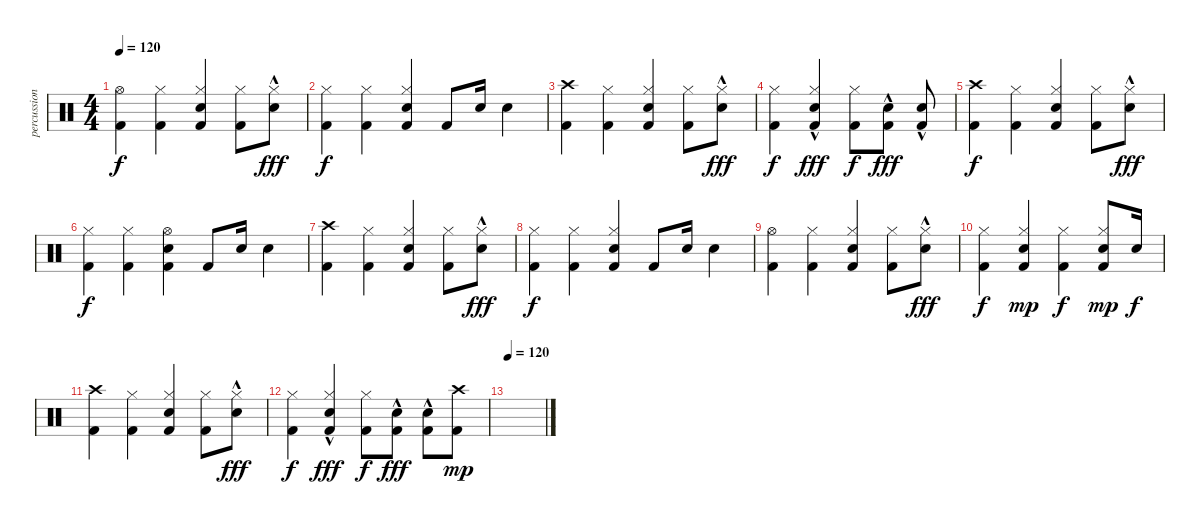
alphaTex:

\track ("percussion" "percussion") {instrument percussion}
\staff {score}
\articulation defaults
\ts (4 4)
\tempo 120
\clef neutral
\ks c
("Hi-Hat (open)" "Kick (hit) 2").4{dy f} ("Hi-Hat (closed)" "Kick (hit) 2").4 ("Hi-Hat (closed)" "Electric Snare (hit)" "Kick (hit) 2").4 ("Hi-Hat (closed)" "Kick (hit) 2").8 ("Hi-Hat (closed)" "Electric Snare (hit)"{hac}).8{dy fff} |
("Hi-Hat (closed)" "Kick (hit) 2").4{dy f} ("Hi-Hat (closed)" "Kick (hit) 2").4 ("Hi-Hat (closed)" "Electric Snare (hit)" "Kick (hit) 2").4 "Kick (hit) 2".8 "Electric Snare (hit)".16 "Electric Snare (hit)".4 |
("Crash high (hit)" "Kick (hit) 2").4 ("Hi-Hat (closed)" "Kick (hit) 2").4 ("Hi-Hat (closed)" "Electric Snare (hit)" "Kick (hit) 2").4 ("Hi-Hat (closed)" "Kick (hit) 2").8 ("Hi-Hat (closed)" "Electric Snare (hit)"{hac}).8{dy fff} |
("Hi-Hat (closed)" "Kick (hit) 2").4{dy f} ("Hi-Hat (closed)" "Electric Snare (hit)"{hac} "Kick (hit) 2").4{dy fff} ("Hi-Hat (closed)" "Kick (hit) 2").8{dy f} ("Electric Snare (hit)"{hac} "Kick (hit) 2").8{dy fff} ("Electric Snare (hit)"{hac} "Kick (hit) 2").8 |
("Crash high (hit)" "Kick (hit) 2").4{dy f} ("Hi-Hat (closed)" "Kick (hit) 2").4 ("Hi-Hat (closed)" "Electric Snare (hit)" "Kick (hit) 2").4 ("Hi-Hat (closed)" "Kick (hit) 2").8 ("Hi-Hat (closed)" "Electric Snare (hit)"{hac}).8{dy fff} |
("Hi-Hat (closed)" "Kick (hit) 2").4{dy f} ("Hi-Hat (closed)" "Kick (hit) 2").4 ("Hi-Hat (open)" "Electric Snare (hit)" "Kick (hit) 2").4 "Kick (hit) 2".8 "Electric Snare (hit)".16 "Electric Snare (hit)".4 |
("Crash high (hit)" "Kick (hit) 2").4 ("Hi-Hat (closed)" "Kick (hit) 2").4 ("Hi-Hat (closed)" "Electric Snare (hit)" "Kick (hit) 2").4 ("Hi-Hat (closed)" "Kick (hit) 2").8 ("Hi-Hat (closed)" "Electric Snare (hit)"{hac}).8{dy fff} |
("Hi-Hat (closed)" "Kick (hit) 2").4{dy f} ("Hi-Hat (closed)" "Kick (hit) 2").4 ("Hi-Hat (closed)" "Electric Snare (hit)" "Kick (hit) 2").4 "Kick (hit) 2".8 "Electric Snare (hit)".16 "Electric Snare (hit)".4 |
("Hi-Hat (open)" "Kick (hit) 2").4 ("Hi-Hat (closed)" "Kick (hit) 2").4 ("Hi-Hat (closed)" "Electric Snare (hit)" "Kick (hit) 2").4 ("Hi-Hat (closed)" "Kick (hit) 2").8 ("Hi-Hat (closed)" "Electric Snare (hit)"{hac}).8{dy fff} |
("Hi-Hat (closed)" "Kick (hit) 2").4{dy f} ("Hi-Hat (closed)" "Electric Snare (hit)" "Kick (hit) 2").4{dy mp} ("Hi-Hat (closed)" "Kick (hit) 2").4{dy f} ("Hi-Hat (closed)" "Electric Snare (hit)" "Kick (hit) 2").8{dy mp} "Electric Snare (hit)".16{dy f} |
("Crash high (hit)" "Kick (hit) 2").4 ("Hi-Hat (closed)" "Kick (hit) 2").4 ("Hi-Hat (closed)" "Electric Snare (hit)" "Kick (hit) 2").4 ("Hi-Hat (closed)" "Kick (hit) 2").8 ("Hi-Hat (closed)" "Electric Snare (hit)"{hac}).8{dy fff} |
("Hi-Hat (closed)" "Kick (hit) 2").4{dy f} ("Hi-Hat (closed)" "Electric Snare (hit)"{hac} "Kick (hit) 2").4{dy fff} ("Hi-Hat (closed)" "Kick (hit) 2").8{dy f} ("Electric Snare (hit)"{hac} "Kick (hit) 2").8{dy fff} ("Electric Snare (hit)"{hac} "Kick (hit) 2").8 ("Crash high (hit)" "Kick (hit) 2").8{dy mp} |
\tempo 120
